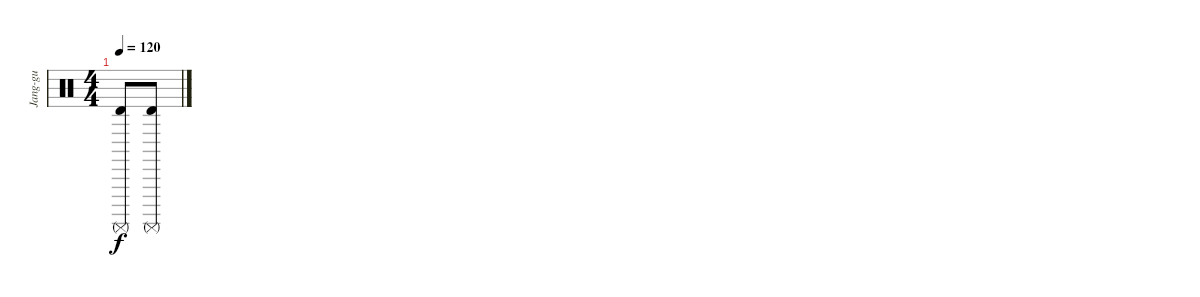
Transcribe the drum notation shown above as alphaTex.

\track ("Jang-gu" "Jang-gu") {instrument percussion}
\staff {score}
\articulation defaults
\ts (4 4)
\tempo 120
\clef neutral
\ks c
("Timbale high (hit)" "Surdo (mute)").8{dy f} ("Timbale high (hit)" "Surdo (mute)").8
